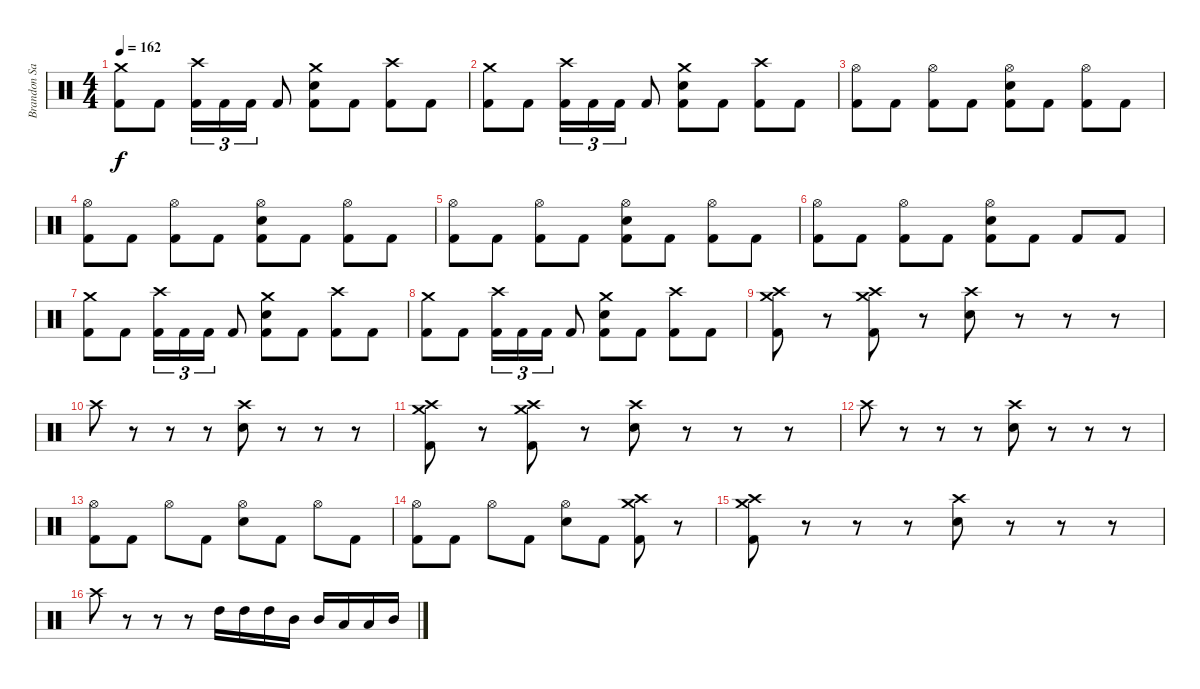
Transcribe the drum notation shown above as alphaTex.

\track ("Brandon Saller" "Brandon Sa") {instrument percussion}
\staff {score}
\articulation defaults
\ts (4 4)
\tempo 162
\clef neutral
\ks c
("Crash medium (hit)" "Kick (hit) 2").8{dy f} "Kick (hit) 2".8 ("Crash high (hit)" "Kick (hit) 2").16{tu (3 2)} "Kick (hit) 2".16{tu (3 2)} "Kick (hit) 2".16{tu (3 2)} "Kick (hit) 2".8 ("Crash medium (hit)" "Electric Snare (hit)" "Kick (hit) 2").8 "Kick (hit) 2".8 ("Crash high (hit)" "Kick (hit) 2").8 "Kick (hit) 2".8 |
("Crash medium (hit)" "Kick (hit) 2").8 "Kick (hit) 2".8 ("Crash high (hit)" "Kick (hit) 2").16{tu (3 2)} "Kick (hit) 2".16{tu (3 2)} "Kick (hit) 2".16{tu (3 2)} "Kick (hit) 2".8 ("Crash medium (hit)" "Electric Snare (hit)" "Kick (hit) 2").8 "Kick (hit) 2".8 ("Crash high (hit)" "Kick (hit) 2").8 "Kick (hit) 2".8 |
("Hi-Hat (open)" "Kick (hit) 2").8 "Kick (hit) 2".8 ("Hi-Hat (open)" "Kick (hit) 2").8 "Kick (hit) 2".8 ("Hi-Hat (open)" "Electric Snare (hit)" "Kick (hit) 2").8 "Kick (hit) 2".8 ("Hi-Hat (open)" "Kick (hit) 2").8 "Kick (hit) 2".8 |
("Hi-Hat (open)" "Kick (hit) 2").8 "Kick (hit) 2".8 ("Hi-Hat (open)" "Kick (hit) 2").8 "Kick (hit) 2".8 ("Hi-Hat (open)" "Electric Snare (hit)" "Kick (hit) 2").8 "Kick (hit) 2".8 ("Hi-Hat (open)" "Kick (hit) 2").8 "Kick (hit) 2".8 |
("Hi-Hat (open)" "Kick (hit) 2").8 "Kick (hit) 2".8 ("Hi-Hat (open)" "Kick (hit) 2").8 "Kick (hit) 2".8 ("Hi-Hat (open)" "Electric Snare (hit)" "Kick (hit) 2").8 "Kick (hit) 2".8 ("Hi-Hat (open)" "Kick (hit) 2").8 "Kick (hit) 2".8 |
("Hi-Hat (open)" "Kick (hit) 2").8 "Kick (hit) 2".8 ("Hi-Hat (open)" "Kick (hit) 2").8 "Kick (hit) 2".8 ("Hi-Hat (open)" "Electric Snare (hit)" "Kick (hit) 2").8 "Kick (hit) 2".8 "Kick (hit) 2".8 "Kick (hit) 2".8 |
("Crash medium (hit)" "Kick (hit) 2").8 "Kick (hit) 2".8 ("Crash high (hit)" "Kick (hit) 2").16{tu (3 2)} "Kick (hit) 2".16{tu (3 2)} "Kick (hit) 2".16{tu (3 2)} "Kick (hit) 2".8 ("Crash medium (hit)" "Electric Snare (hit)" "Kick (hit) 2").8 "Kick (hit) 2".8 ("Crash high (hit)" "Kick (hit) 2").8 "Kick (hit) 2".8 |
("Crash medium (hit)" "Kick (hit) 2").8 "Kick (hit) 2".8 ("Crash high (hit)" "Kick (hit) 2").16{tu (3 2)} "Kick (hit) 2".16{tu (3 2)} "Kick (hit) 2".16{tu (3 2)} "Kick (hit) 2".8 ("Crash medium (hit)" "Electric Snare (hit)" "Kick (hit) 2").8 "Kick (hit) 2".8 ("Crash high (hit)" "Kick (hit) 2").8 "Kick (hit) 2".8 |
("Crash high (hit)" "Crash medium (hit)" "Kick (hit) 2").8 r.8 ("Crash high (hit)" "Crash medium (hit)" "Kick (hit) 2").8 r.8 ("Crash high (hit)" "Electric Snare (hit)").8 r.8 r.8 r.8 |
"Crash high (hit)".8 r.8 r.8 r.8 ("Crash high (hit)" "Electric Snare (hit)").8 r.8 r.8 r.8 |
("Crash high (hit)" "Crash medium (hit)" "Kick (hit) 2").8 r.8 ("Crash high (hit)" "Crash medium (hit)" "Kick (hit) 2").8 r.8 ("Crash high (hit)" "Electric Snare (hit)").8 r.8 r.8 r.8 |
"Crash high (hit)".8 r.8 r.8 r.8 ("Crash high (hit)" "Electric Snare (hit)").8 r.8 r.8 r.8 |
("Hi-Hat (open)" "Kick (hit) 2").8 "Kick (hit) 2".8 "Hi-Hat (open)".8 "Kick (hit) 2".8 ("Hi-Hat (open)" "Electric Snare (hit)").8 "Kick (hit) 2".8 "Hi-Hat (open)".8 "Kick (hit) 2".8 |
("Hi-Hat (open)" "Kick (hit) 2").8 "Kick (hit) 2".8 "Hi-Hat (open)".8 "Kick (hit) 2".8 ("Hi-Hat (open)" "Electric Snare (hit)").8 "Kick (hit) 2".8 ("Crash high (hit)" "Crash medium (hit)" "Kick (hit) 2").8 r.8 |
("Crash high (hit)" "Crash medium (hit)" "Kick (hit) 2").8 r.8 r.8 r.8 ("Crash high (hit)" "Electric Snare (hit)").8 r.8 r.8 r.8 |
"Crash high (hit)".8 r.8 r.8 r.8 "High Tom (hit)".16 "High Tom (hit)".16 "High Tom (hit)".16 "Mid Tom (hit)".16 "Mid Tom (hit)".16 "Low Tom (hit)".16 "Low Tom (hit)".16 "Mid Tom (hit)".16
